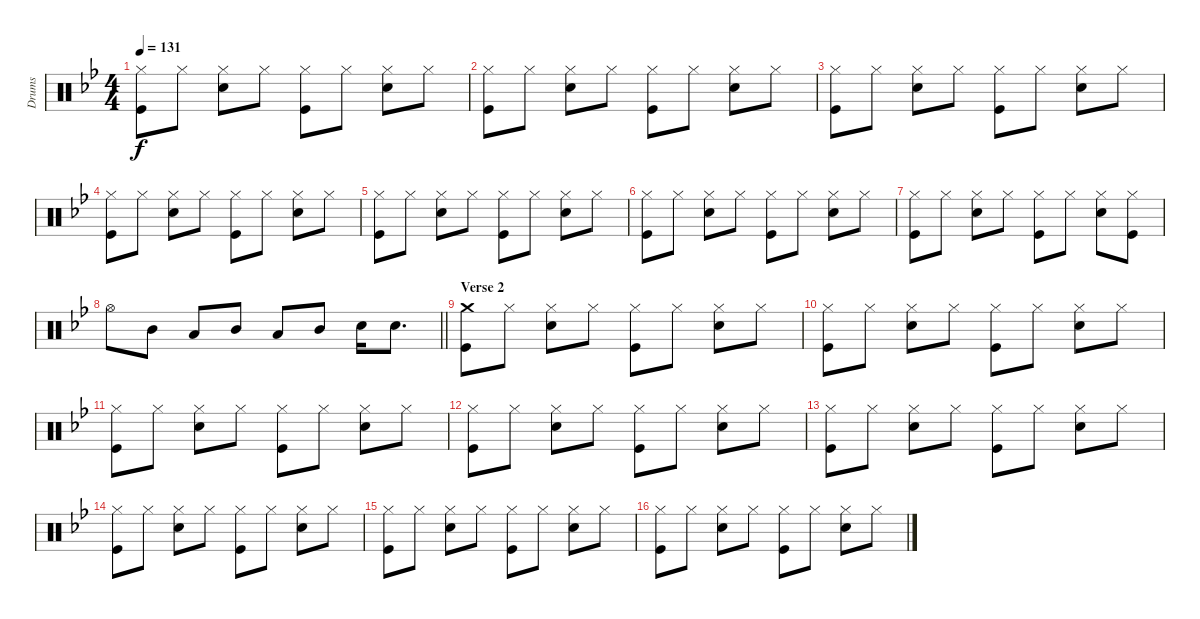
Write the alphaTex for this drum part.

\track ("Drums" "Drums") {instrument percussion}
\staff {score}
\articulation defaults
\ts (4 4)
\tempo 131
\clef neutral
\ks bb
("Hi-Hat (closed)" "Kick (hit)").8{dy f} "Hi-Hat (closed)".8 ("Hi-Hat (closed)" "Snare (hit) 2").8 "Hi-Hat (closed)".8 ("Hi-Hat (closed)" "Kick (hit)").8 "Hi-Hat (closed)".8 ("Hi-Hat (closed)" "Snare (hit) 2").8 "Hi-Hat (closed)".8 |
("Hi-Hat (closed)" "Kick (hit)").8 "Hi-Hat (closed)".8 ("Hi-Hat (closed)" "Snare (hit) 2").8 "Hi-Hat (closed)".8 ("Hi-Hat (closed)" "Kick (hit)").8 "Hi-Hat (closed)".8 ("Hi-Hat (closed)" "Snare (hit) 2").8 "Hi-Hat (closed)".8 |
("Hi-Hat (closed)" "Kick (hit)").8 "Hi-Hat (closed)".8 ("Hi-Hat (closed)" "Snare (hit) 2").8 "Hi-Hat (closed)".8 ("Hi-Hat (closed)" "Kick (hit)").8 "Hi-Hat (closed)".8 ("Hi-Hat (closed)" "Snare (hit) 2").8 "Hi-Hat (closed)".8 |
("Hi-Hat (closed)" "Kick (hit)").8 "Hi-Hat (closed)".8 ("Hi-Hat (closed)" "Snare (hit) 2").8 "Hi-Hat (closed)".8 ("Hi-Hat (closed)" "Kick (hit)").8 "Hi-Hat (closed)".8 ("Hi-Hat (closed)" "Snare (hit) 2").8 "Hi-Hat (closed)".8 |
("Hi-Hat (closed)" "Kick (hit)").8 "Hi-Hat (closed)".8 ("Hi-Hat (closed)" "Snare (hit) 2").8 "Hi-Hat (closed)".8 ("Hi-Hat (closed)" "Kick (hit)").8 "Hi-Hat (closed)".8 ("Hi-Hat (closed)" "Snare (hit) 2").8 "Hi-Hat (closed)".8 |
("Hi-Hat (closed)" "Kick (hit)").8 "Hi-Hat (closed)".8 ("Hi-Hat (closed)" "Snare (hit) 2").8 "Hi-Hat (closed)".8 ("Hi-Hat (closed)" "Kick (hit)").8 "Hi-Hat (closed)".8 ("Hi-Hat (closed)" "Snare (hit) 2").8 "Hi-Hat (closed)".8 |
("Hi-Hat (closed)" "Kick (hit)").8 "Hi-Hat (closed)".8 ("Hi-Hat (closed)" "Snare (hit) 2").8 "Hi-Hat (closed)".8 ("Hi-Hat (closed)" "Kick (hit)").8 "Hi-Hat (closed)".8 ("Hi-Hat (closed)" "Snare (hit) 2").8 ("Hi-Hat (closed)" "Kick (hit)").8 |
\barLineRight lightlight "Hi-Hat (open)".8 "Mid Tom (hit)".8 "Low Tom (hit)".8 "Mid Tom (hit)".8 "Low Tom (hit)".8 "Mid Tom (hit)".8 "Snare (hit) 2".16 "Snare (hit) 2".8{d}
|
\section ("" "Verse 2")
("Crash medium (hit)" "Kick (hit)").8 "Hi-Hat (closed)".8 ("Hi-Hat (closed)" "Snare (hit) 2").8 "Hi-Hat (closed)".8 ("Hi-Hat (closed)" "Kick (hit)").8 "Hi-Hat (closed)".8 ("Hi-Hat (closed)" "Snare (hit) 2").8 "Hi-Hat (closed)".8 |
("Hi-Hat (closed)" "Kick (hit)").8 "Hi-Hat (closed)".8 ("Hi-Hat (closed)" "Snare (hit) 2").8 "Hi-Hat (closed)".8 ("Hi-Hat (closed)" "Kick (hit)").8 "Hi-Hat (closed)".8 ("Hi-Hat (closed)" "Snare (hit) 2").8 "Hi-Hat (closed)".8 |
("Hi-Hat (closed)" "Kick (hit)").8 "Hi-Hat (closed)".8 ("Hi-Hat (closed)" "Snare (hit) 2").8 "Hi-Hat (closed)".8 ("Hi-Hat (closed)" "Kick (hit)").8 "Hi-Hat (closed)".8 ("Hi-Hat (closed)" "Snare (hit) 2").8 "Hi-Hat (closed)".8 |
("Hi-Hat (closed)" "Kick (hit)").8 "Hi-Hat (closed)".8 ("Hi-Hat (closed)" "Snare (hit) 2").8 "Hi-Hat (closed)".8 ("Hi-Hat (closed)" "Kick (hit)").8 "Hi-Hat (closed)".8 ("Hi-Hat (closed)" "Snare (hit) 2").8 "Hi-Hat (closed)".8 |
("Hi-Hat (closed)" "Kick (hit)").8 "Hi-Hat (closed)".8 ("Hi-Hat (closed)" "Snare (hit) 2").8 "Hi-Hat (closed)".8 ("Hi-Hat (closed)" "Kick (hit)").8 "Hi-Hat (closed)".8 ("Hi-Hat (closed)" "Snare (hit) 2").8 "Hi-Hat (closed)".8 |
("Hi-Hat (closed)" "Kick (hit)").8 "Hi-Hat (closed)".8 ("Hi-Hat (closed)" "Snare (hit) 2").8 "Hi-Hat (closed)".8 ("Hi-Hat (closed)" "Kick (hit)").8 "Hi-Hat (closed)".8 ("Hi-Hat (closed)" "Snare (hit) 2").8 "Hi-Hat (closed)".8 |
("Hi-Hat (closed)" "Kick (hit)").8 "Hi-Hat (closed)".8 ("Hi-Hat (closed)" "Snare (hit) 2").8 "Hi-Hat (closed)".8 ("Hi-Hat (closed)" "Kick (hit)").8 "Hi-Hat (closed)".8 ("Hi-Hat (closed)" "Snare (hit) 2").8 "Hi-Hat (closed)".8 |
("Hi-Hat (closed)" "Kick (hit)").8 "Hi-Hat (closed)".8 ("Hi-Hat (closed)" "Snare (hit) 2").8 "Hi-Hat (closed)".8 ("Hi-Hat (closed)" "Kick (hit)").8 "Hi-Hat (closed)".8 ("Hi-Hat (closed)" "Snare (hit) 2").8 "Hi-Hat (closed)".8
